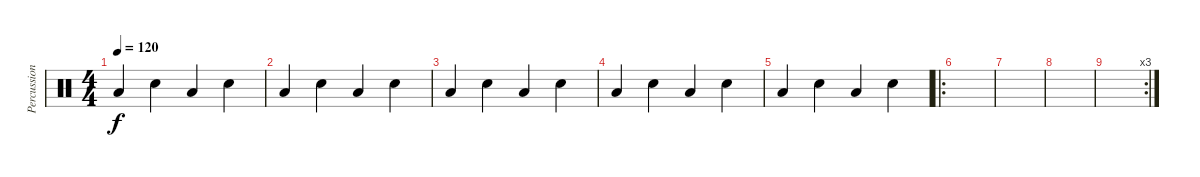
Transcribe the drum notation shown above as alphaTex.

\track ("Percussion" "Percussion") {instrument percussion}
\staff {score}
\articulation defaults
\ts (4 4)
\tempo 120
\clef neutral
\ks c "Low Floor Tom (hit)".4{dy f} "Electric Snare (hit)".4 "Low Floor Tom (hit)".4 "Electric Snare (hit)".4
|
"Low Floor Tom (hit)".4 "Electric Snare (hit)".4 "Low Floor Tom (hit)".4 "Electric Snare (hit)".4 |
"Low Floor Tom (hit)".4 "Electric Snare (hit)".4 "Low Floor Tom (hit)".4 "Electric Snare (hit)".4 |
"Low Floor Tom (hit)".4 "Electric Snare (hit)".4 "Low Floor Tom (hit)".4 "Electric Snare (hit)".4 |
"Low Floor Tom (hit)".4 "Electric Snare (hit)".4 "Low Floor Tom (hit)".4 "Electric Snare (hit)".4 |
\ro
|
|
|
\rc 3
